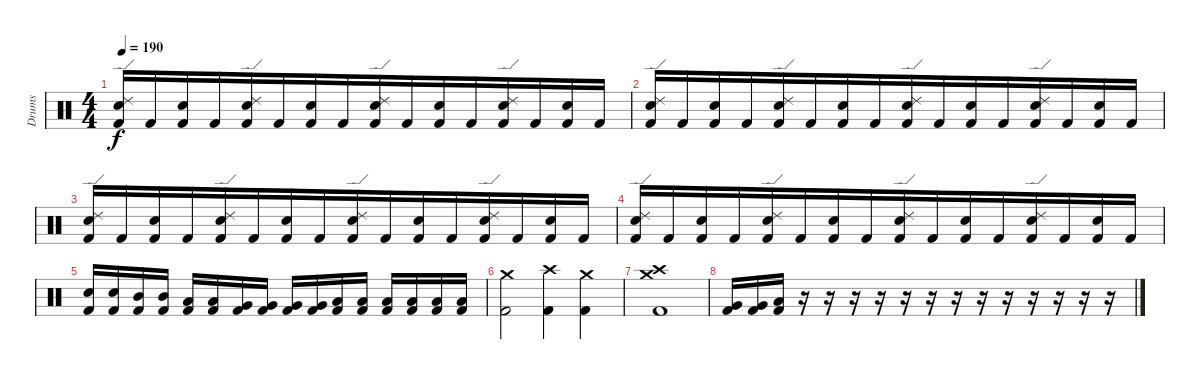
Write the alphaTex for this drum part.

\track ("Drums" "Drums") {instrument percussion}
\staff {score}
\articulation defaults
\ts (4 4)
\tempo 190
\clef neutral
\ks c
("Ride (edge) 2" "Electric Snare (hit)" "Kick (hit) 2").16{dy f beam merge} "Kick (hit) 2".16{beam merge} ("Electric Snare (hit)" "Kick (hit) 2").16{beam merge} "Kick (hit) 2".16{beam merge} ("Ride (edge) 2" "Electric Snare (hit)" "Kick (hit) 2").16{beam merge} "Kick (hit) 2".16{beam merge} ("Electric Snare (hit)" "Kick (hit) 2").16{beam merge} "Kick (hit) 2".16{beam merge} ("Ride (edge) 2" "Electric Snare (hit)" "Kick (hit) 2").16{beam merge} "Kick (hit) 2".16{beam merge} ("Electric Snare (hit)" "Kick (hit) 2").16{beam merge} "Kick (hit) 2".16{beam merge} ("Ride (edge) 2" "Electric Snare (hit)" "Kick (hit) 2").16{beam merge} "Kick (hit) 2".16{beam merge} ("Electric Snare (hit)" "Kick (hit) 2").16{beam merge} "Kick (hit) 2".16 |
("Ride (edge) 2" "Electric Snare (hit)" "Kick (hit) 2").16{beam merge} "Kick (hit) 2".16{beam merge} ("Electric Snare (hit)" "Kick (hit) 2").16{beam merge} "Kick (hit) 2".16{beam merge} ("Ride (edge) 2" "Electric Snare (hit)" "Kick (hit) 2").16{beam merge} "Kick (hit) 2".16{beam merge} ("Electric Snare (hit)" "Kick (hit) 2").16{beam merge} "Kick (hit) 2".16{beam merge} ("Ride (edge) 2" "Electric Snare (hit)" "Kick (hit) 2").16{beam merge} "Kick (hit) 2".16{beam merge} ("Electric Snare (hit)" "Kick (hit) 2").16{beam merge} "Kick (hit) 2".16{beam merge} ("Ride (edge) 2" "Electric Snare (hit)" "Kick (hit) 2").16{beam merge} "Kick (hit) 2".16{beam merge} ("Electric Snare (hit)" "Kick (hit) 2").16{beam merge} "Kick (hit) 2".16 |
("Ride (edge) 2" "Electric Snare (hit)" "Kick (hit) 2").16{beam merge} "Kick (hit) 2".16{beam merge} ("Electric Snare (hit)" "Kick (hit) 2").16{beam merge} "Kick (hit) 2".16{beam merge} ("Ride (edge) 2" "Electric Snare (hit)" "Kick (hit) 2").16{beam merge} "Kick (hit) 2".16{beam merge} ("Electric Snare (hit)" "Kick (hit) 2").16{beam merge} "Kick (hit) 2".16{beam merge} ("Ride (edge) 2" "Electric Snare (hit)" "Kick (hit) 2").16{beam merge} "Kick (hit) 2".16{beam merge} ("Electric Snare (hit)" "Kick (hit) 2").16{beam merge} "Kick (hit) 2".16{beam merge} ("Ride (edge) 2" "Electric Snare (hit)" "Kick (hit) 2").16{beam merge} "Kick (hit) 2".16{beam merge} ("Electric Snare (hit)" "Kick (hit) 2").16{beam merge} "Kick (hit) 2".16 |
("Ride (edge) 2" "Electric Snare (hit)" "Kick (hit) 2").16{beam merge} "Kick (hit) 2".16{beam merge} ("Electric Snare (hit)" "Kick (hit) 2").16{beam merge} "Kick (hit) 2".16{beam merge} ("Ride (edge) 2" "Electric Snare (hit)" "Kick (hit) 2").16{beam merge} "Kick (hit) 2".16{beam merge} ("Electric Snare (hit)" "Kick (hit) 2").16{beam merge} "Kick (hit) 2".16{beam merge} ("Ride (edge) 2" "Electric Snare (hit)" "Kick (hit) 2").16{beam merge} "Kick (hit) 2".16{beam merge} ("Electric Snare (hit)" "Kick (hit) 2").16{beam merge} "Kick (hit) 2".16{beam merge} ("Ride (edge) 2" "Electric Snare (hit)" "Kick (hit) 2").16{beam merge} "Kick (hit) 2".16{beam merge} ("Electric Snare (hit)" "Kick (hit) 2").16{beam merge} "Kick (hit) 2".16 |
("Electric Snare (hit)" "Kick (hit) 2").16 ("Electric Snare (hit)" "Kick (hit) 2").16 ("Mid Tom (hit)" "Kick (hit) 2").16 ("Mid Tom (hit)" "Kick (hit) 2").16 ("Low Tom (hit)" "Kick (hit) 2").16 ("Low Tom (hit)" "Kick (hit) 2").16 ("Very Low Tom (hit)" "Kick (hit) 2").16 ("Very Low Tom (hit)" "Kick (hit) 2").16 ("Very Low Tom (hit)" "Kick (hit) 2").16 ("Very Low Tom (hit)" "Kick (hit) 2").16 ("Low Floor Tom (hit)" "Kick (hit) 2").16 ("Low Floor Tom (hit)" "Kick (hit) 2").16 ("Low Floor Tom (hit)" "Kick (hit) 2").16 ("Low Floor Tom (hit)" "Kick (hit) 2").16 ("Low Floor Tom (hit)" "Kick (hit) 2").16 ("Low Floor Tom (hit)" "Kick (hit) 2").16 |
("Crash medium (hit)" "Kick (hit) 2").2{beam merge} ("Crash high (hit)" "Kick (hit) 2").4{beam merge} ("Crash medium (hit)" "Kick (hit) 2").4 |
("Crash high (hit)" "Crash medium (hit)" "Kick (hit) 2").1 |
("Very Low Tom (hit)" "Kick (hit) 2").16{beam merge} ("Very Low Tom (hit)" "Kick (hit) 2").16{beam merge} ("Low Floor Tom (hit)" "Kick (hit) 2").16{beam merge} r.16{beam merge} r.16{beam merge} r.16{beam merge} r.16{beam merge} r.16{beam merge} r.16{beam merge} r.16{beam merge} r.16{beam merge} r.16{beam merge} r.16{beam merge} r.16{beam merge} r.16{beam merge} r.16
